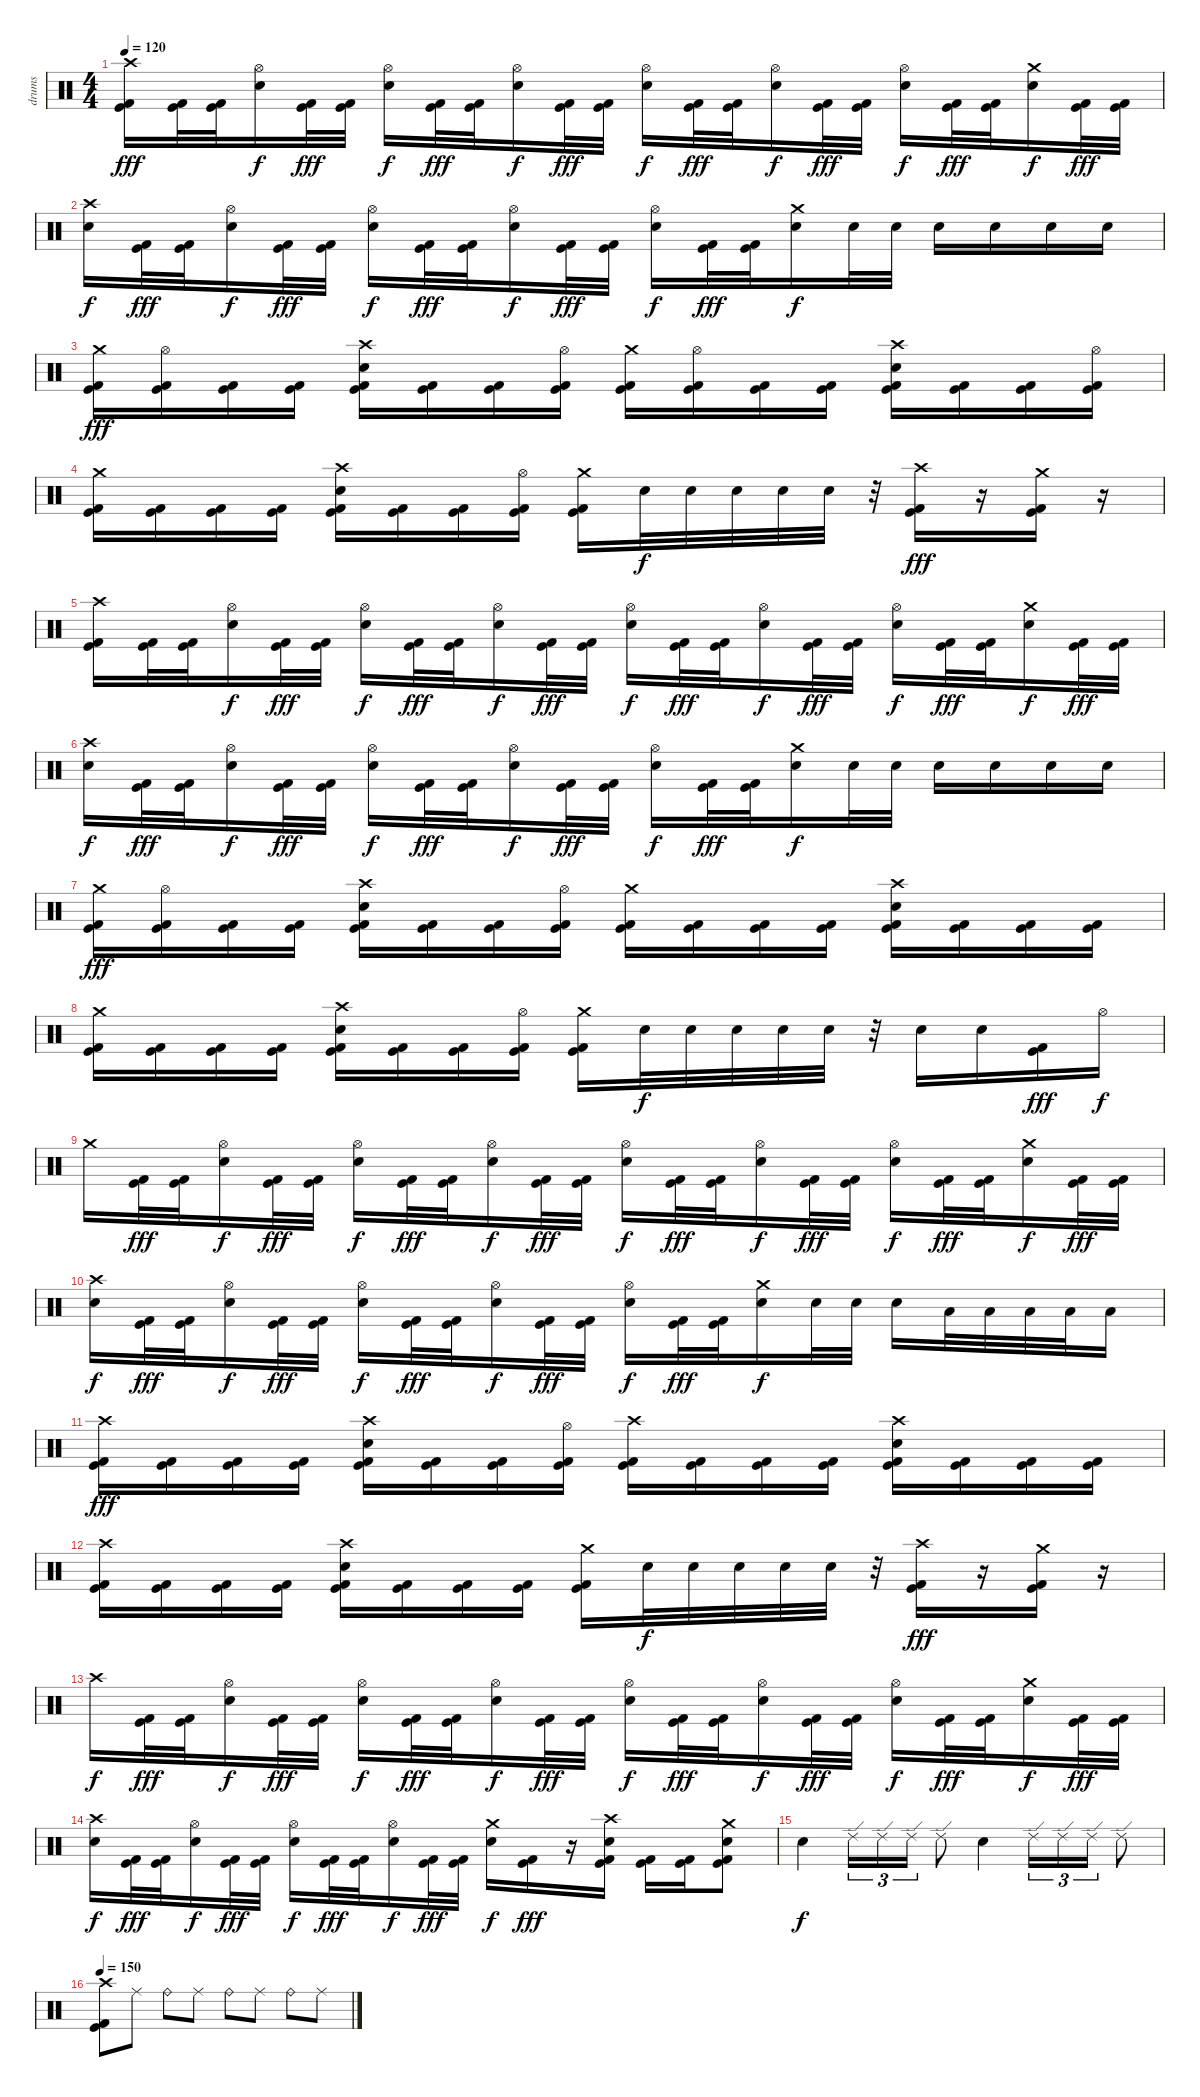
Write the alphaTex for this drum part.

\track ("drums" "drums") {instrument percussion}
\staff {score}
\articulation defaults
\ts (4 4)
\tempo 120
\clef neutral
\ks c
("Crash high (hit)" "Kick (hit)" "Kick (hit) 2").16{dy fff} ("Kick (hit)" "Kick (hit) 2").32 ("Kick (hit)" "Kick (hit) 2").32 ("Hi-Hat (open)" "Electric Snare (hit)").16{dy f} ("Kick (hit)" "Kick (hit) 2").32{dy fff} ("Kick (hit)" "Kick (hit) 2").32 ("Hi-Hat (open)" "Electric Snare (hit)").16{dy f} ("Kick (hit)" "Kick (hit) 2").32{dy fff} ("Kick (hit)" "Kick (hit) 2").32 ("Hi-Hat (open)" "Electric Snare (hit)").16{dy f} ("Kick (hit)" "Kick (hit) 2").32{dy fff} ("Kick (hit)" "Kick (hit) 2").32 ("Hi-Hat (open)" "Electric Snare (hit)").16{dy f} ("Kick (hit)" "Kick (hit) 2").32{dy fff} ("Kick (hit)" "Kick (hit) 2").32 ("Hi-Hat (open)" "Electric Snare (hit)").16{dy f} ("Kick (hit)" "Kick (hit) 2").32{dy fff} ("Kick (hit)" "Kick (hit) 2").32 ("Hi-Hat (open)" "Electric Snare (hit)").16{dy f} ("Kick (hit)" "Kick (hit) 2").32{dy fff} ("Kick (hit)" "Kick (hit) 2").32 ("Crash medium (hit)" "Electric Snare (hit)").16{dy f} ("Kick (hit)" "Kick (hit) 2").32{dy fff} ("Kick (hit)" "Kick (hit) 2").32 |
("Crash high (hit)" "Electric Snare (hit)").16{dy f} ("Kick (hit)" "Kick (hit) 2").32{dy fff} ("Kick (hit)" "Kick (hit) 2").32 ("Hi-Hat (open)" "Electric Snare (hit)").16{dy f} ("Kick (hit)" "Kick (hit) 2").32{dy fff} ("Kick (hit)" "Kick (hit) 2").32 ("Hi-Hat (open)" "Electric Snare (hit)").16{dy f} ("Kick (hit)" "Kick (hit) 2").32{dy fff} ("Kick (hit)" "Kick (hit) 2").32 ("Hi-Hat (open)" "Electric Snare (hit)").16{dy f} ("Kick (hit)" "Kick (hit) 2").32{dy fff} ("Kick (hit)" "Kick (hit) 2").32 ("Hi-Hat (open)" "Electric Snare (hit)").16{dy f} ("Kick (hit)" "Kick (hit) 2").32{dy fff} ("Kick (hit)" "Kick (hit) 2").32 ("Crash medium (hit)" "Electric Snare (hit)").16{dy f} "Electric Snare (hit)".32 "Electric Snare (hit)".32 "Electric Snare (hit)".16 "Electric Snare (hit)".16 "Electric Snare (hit)".16 "Electric Snare (hit)".16 |
("Crash medium (hit)" "Kick (hit)" "Kick (hit) 2").16{dy fff} ("Hi-Hat (open)" "Kick (hit)" "Kick (hit) 2").16 ("Kick (hit)" "Kick (hit) 2").16 ("Kick (hit)" "Kick (hit) 2").16 ("Crash high (hit)" "Electric Snare (hit)" "Kick (hit)" "Kick (hit) 2").16 ("Kick (hit)" "Kick (hit) 2").16 ("Kick (hit)" "Kick (hit) 2").16 ("Hi-Hat (open)" "Kick (hit)" "Kick (hit) 2").16 ("Crash medium (hit)" "Kick (hit)" "Kick (hit) 2").16 ("Hi-Hat (open)" "Kick (hit)" "Kick (hit) 2").16 ("Kick (hit)" "Kick (hit) 2").16 ("Kick (hit)" "Kick (hit) 2").16 ("Crash high (hit)" "Electric Snare (hit)" "Kick (hit)" "Kick (hit) 2").16 ("Kick (hit)" "Kick (hit) 2").16 ("Kick (hit)" "Kick (hit) 2").16 ("Hi-Hat (open)" "Kick (hit)" "Kick (hit) 2").16 |
("Crash medium (hit)" "Kick (hit)" "Kick (hit) 2").16 ("Kick (hit)" "Kick (hit) 2").16 ("Kick (hit)" "Kick (hit) 2").16 ("Kick (hit)" "Kick (hit) 2").16 ("Crash high (hit)" "Electric Snare (hit)" "Kick (hit)" "Kick (hit) 2").16 ("Kick (hit)" "Kick (hit) 2").16 ("Kick (hit)" "Kick (hit) 2").16 ("Hi-Hat (open)" "Kick (hit)" "Kick (hit) 2").16 ("Crash medium (hit)" "Kick (hit)" "Kick (hit) 2").16 "Electric Snare (hit)".32{dy f} "Electric Snare (hit)".32 "Electric Snare (hit)".32 "Electric Snare (hit)".32 "Electric Snare (hit)".32 r.32 ("Crash high (hit)" "Kick (hit)" "Kick (hit) 2").16{dy fff} r.16 ("Crash medium (hit)" "Kick (hit)" "Kick (hit) 2").16 r.16 |
("Crash high (hit)" "Kick (hit)" "Kick (hit) 2").16 ("Kick (hit)" "Kick (hit) 2").32 ("Kick (hit)" "Kick (hit) 2").32 ("Hi-Hat (open)" "Electric Snare (hit)").16{dy f} ("Kick (hit)" "Kick (hit) 2").32{dy fff} ("Kick (hit)" "Kick (hit) 2").32 ("Hi-Hat (open)" "Electric Snare (hit)").16{dy f} ("Kick (hit)" "Kick (hit) 2").32{dy fff} ("Kick (hit)" "Kick (hit) 2").32 ("Hi-Hat (open)" "Electric Snare (hit)").16{dy f} ("Kick (hit)" "Kick (hit) 2").32{dy fff} ("Kick (hit)" "Kick (hit) 2").32 ("Hi-Hat (open)" "Electric Snare (hit)").16{dy f} ("Kick (hit)" "Kick (hit) 2").32{dy fff} ("Kick (hit)" "Kick (hit) 2").32 ("Hi-Hat (open)" "Electric Snare (hit)").16{dy f} ("Kick (hit)" "Kick (hit) 2").32{dy fff} ("Kick (hit)" "Kick (hit) 2").32 ("Hi-Hat (open)" "Electric Snare (hit)").16{dy f} ("Kick (hit)" "Kick (hit) 2").32{dy fff} ("Kick (hit)" "Kick (hit) 2").32 ("Crash medium (hit)" "Electric Snare (hit)").16{dy f} ("Kick (hit)" "Kick (hit) 2").32{dy fff} ("Kick (hit)" "Kick (hit) 2").32 |
("Crash high (hit)" "Electric Snare (hit)").16{dy f} ("Kick (hit)" "Kick (hit) 2").32{dy fff} ("Kick (hit)" "Kick (hit) 2").32 ("Hi-Hat (open)" "Electric Snare (hit)").16{dy f} ("Kick (hit)" "Kick (hit) 2").32{dy fff} ("Kick (hit)" "Kick (hit) 2").32 ("Hi-Hat (open)" "Electric Snare (hit)").16{dy f} ("Kick (hit)" "Kick (hit) 2").32{dy fff} ("Kick (hit)" "Kick (hit) 2").32 ("Hi-Hat (open)" "Electric Snare (hit)").16{dy f} ("Kick (hit)" "Kick (hit) 2").32{dy fff} ("Kick (hit)" "Kick (hit) 2").32 ("Hi-Hat (open)" "Electric Snare (hit)").16{dy f} ("Kick (hit)" "Kick (hit) 2").32{dy fff} ("Kick (hit)" "Kick (hit) 2").32 ("Crash medium (hit)" "Electric Snare (hit)").16{dy f} "Electric Snare (hit)".32 "Electric Snare (hit)".32 "Electric Snare (hit)".16 "Electric Snare (hit)".16 "Electric Snare (hit)".16 "Electric Snare (hit)".16 |
("Crash medium (hit)" "Kick (hit)" "Kick (hit) 2").16{dy fff} ("Hi-Hat (open)" "Kick (hit)" "Kick (hit) 2").16 ("Kick (hit)" "Kick (hit) 2").16 ("Kick (hit)" "Kick (hit) 2").16 ("Crash high (hit)" "Electric Snare (hit)" "Kick (hit)" "Kick (hit) 2").16 ("Kick (hit)" "Kick (hit) 2").16 ("Kick (hit)" "Kick (hit) 2").16 ("Hi-Hat (open)" "Kick (hit)" "Kick (hit) 2").16 ("Crash medium (hit)" "Kick (hit)" "Kick (hit) 2").16 ("Kick (hit)" "Kick (hit) 2").16 ("Kick (hit)" "Kick (hit) 2").16 ("Kick (hit)" "Kick (hit) 2").16 ("Crash high (hit)" "Electric Snare (hit)" "Kick (hit)" "Kick (hit) 2").16 ("Kick (hit)" "Kick (hit) 2").16 ("Kick (hit)" "Kick (hit) 2").16 ("Kick (hit)" "Kick (hit) 2").16 |
("Crash medium (hit)" "Kick (hit)" "Kick (hit) 2").16 ("Kick (hit)" "Kick (hit) 2").16 ("Kick (hit)" "Kick (hit) 2").16 ("Kick (hit)" "Kick (hit) 2").16 ("Crash high (hit)" "Electric Snare (hit)" "Kick (hit)" "Kick (hit) 2").16 ("Kick (hit)" "Kick (hit) 2").16 ("Kick (hit)" "Kick (hit) 2").16 ("Hi-Hat (open)" "Kick (hit)" "Kick (hit) 2").16 ("Crash medium (hit)" "Kick (hit)" "Kick (hit) 2").16 "Electric Snare (hit)".32{dy f} "Electric Snare (hit)".32 "Electric Snare (hit)".32 "Electric Snare (hit)".32 "Electric Snare (hit)".32 r.32 "Electric Snare (hit)".16 "Electric Snare (hit)".16 ("Kick (hit)" "Kick (hit) 2").16{dy fff} "Hi-Hat (open)".16{dy f} |
"Crash medium (hit)".16 ("Kick (hit)" "Kick (hit) 2").32{dy fff} ("Kick (hit)" "Kick (hit) 2").32 ("Hi-Hat (open)" "Electric Snare (hit)").16{dy f} ("Kick (hit)" "Kick (hit) 2").32{dy fff} ("Kick (hit)" "Kick (hit) 2").32 ("Hi-Hat (open)" "Electric Snare (hit)").16{dy f} ("Kick (hit)" "Kick (hit) 2").32{dy fff} ("Kick (hit)" "Kick (hit) 2").32 ("Hi-Hat (open)" "Electric Snare (hit)").16{dy f} ("Kick (hit)" "Kick (hit) 2").32{dy fff} ("Kick (hit)" "Kick (hit) 2").32 ("Hi-Hat (open)" "Electric Snare (hit)").16{dy f} ("Kick (hit)" "Kick (hit) 2").32{dy fff} ("Kick (hit)" "Kick (hit) 2").32 ("Hi-Hat (open)" "Electric Snare (hit)").16{dy f} ("Kick (hit)" "Kick (hit) 2").32{dy fff} ("Kick (hit)" "Kick (hit) 2").32 ("Hi-Hat (open)" "Electric Snare (hit)").16{dy f} ("Kick (hit)" "Kick (hit) 2").32{dy fff} ("Kick (hit)" "Kick (hit) 2").32 ("Crash medium (hit)" "Electric Snare (hit)").16{dy f} ("Kick (hit)" "Kick (hit) 2").32{dy fff} ("Kick (hit)" "Kick (hit) 2").32 |
("Crash high (hit)" "Electric Snare (hit)").16{dy f} ("Kick (hit)" "Kick (hit) 2").32{dy fff} ("Kick (hit)" "Kick (hit) 2").32 ("Hi-Hat (open)" "Electric Snare (hit)").16{dy f} ("Kick (hit)" "Kick (hit) 2").32{dy fff} ("Kick (hit)" "Kick (hit) 2").32 ("Hi-Hat (open)" "Electric Snare (hit)").16{dy f} ("Kick (hit)" "Kick (hit) 2").32{dy fff} ("Kick (hit)" "Kick (hit) 2").32 ("Hi-Hat (open)" "Electric Snare (hit)").16{dy f} ("Kick (hit)" "Kick (hit) 2").32{dy fff} ("Kick (hit)" "Kick (hit) 2").32 ("Hi-Hat (open)" "Electric Snare (hit)").16{dy f} ("Kick (hit)" "Kick (hit) 2").32{dy fff} ("Kick (hit)" "Kick (hit) 2").32 ("Crash medium (hit)" "Electric Snare (hit)").16{dy f} "Electric Snare (hit)".32 "Electric Snare (hit)".32 "Electric Snare (hit)".16 "Low Tom (hit)".32 "Low Tom (hit)".32 "Low Tom (hit)".32 "Low Tom (hit)".32 "Low Tom (hit)".16 |
("Crash high (hit)" "Kick (hit)" "Kick (hit) 2").16{dy fff} ("Kick (hit)" "Kick (hit) 2").16 ("Kick (hit)" "Kick (hit) 2").16 ("Kick (hit)" "Kick (hit) 2").16 ("Crash high (hit)" "Electric Snare (hit)" "Kick (hit)" "Kick (hit) 2").16 ("Kick (hit)" "Kick (hit) 2").16 ("Kick (hit)" "Kick (hit) 2").16 ("Hi-Hat (open)" "Kick (hit)" "Kick (hit) 2").16 ("Crash high (hit)" "Kick (hit)" "Kick (hit) 2").16 ("Kick (hit)" "Kick (hit) 2").16 ("Kick (hit)" "Kick (hit) 2").16 ("Kick (hit)" "Kick (hit) 2").16 ("Crash high (hit)" "Electric Snare (hit)" "Kick (hit)" "Kick (hit) 2").16 ("Kick (hit)" "Kick (hit) 2").16 ("Kick (hit)" "Kick (hit) 2").16 ("Kick (hit)" "Kick (hit) 2").16 |
("Crash high (hit)" "Kick (hit)" "Kick (hit) 2").16 ("Kick (hit)" "Kick (hit) 2").16 ("Kick (hit)" "Kick (hit) 2").16 ("Kick (hit)" "Kick (hit) 2").16 ("Crash high (hit)" "Electric Snare (hit)" "Kick (hit)" "Kick (hit) 2").16 ("Kick (hit)" "Kick (hit) 2").16 ("Kick (hit)" "Kick (hit) 2").16 ("Kick (hit)" "Kick (hit) 2").16 ("Crash medium (hit)" "Kick (hit)" "Kick (hit) 2").16 "Electric Snare (hit)".32{dy f} "Electric Snare (hit)".32 "Electric Snare (hit)".32 "Electric Snare (hit)".32 "Electric Snare (hit)".32 r.32 ("Crash high (hit)" "Kick (hit)" "Kick (hit) 2").16{dy fff} r.16 ("Crash medium (hit)" "Kick (hit)" "Kick (hit) 2").16 r.16 |
"Crash high (hit)".16{dy f} ("Kick (hit)" "Kick (hit) 2").32{dy fff} ("Kick (hit)" "Kick (hit) 2").32 ("Hi-Hat (open)" "Electric Snare (hit)").16{dy f} ("Kick (hit)" "Kick (hit) 2").32{dy fff} ("Kick (hit)" "Kick (hit) 2").32 ("Hi-Hat (open)" "Electric Snare (hit)").16{dy f} ("Kick (hit)" "Kick (hit) 2").32{dy fff} ("Kick (hit)" "Kick (hit) 2").32 ("Hi-Hat (open)" "Electric Snare (hit)").16{dy f} ("Kick (hit)" "Kick (hit) 2").32{dy fff} ("Kick (hit)" "Kick (hit) 2").32 ("Hi-Hat (open)" "Electric Snare (hit)").16{dy f} ("Kick (hit)" "Kick (hit) 2").32{dy fff} ("Kick (hit)" "Kick (hit) 2").32 ("Hi-Hat (open)" "Electric Snare (hit)").16{dy f} ("Kick (hit)" "Kick (hit) 2").32{dy fff} ("Kick (hit)" "Kick (hit) 2").32 ("Hi-Hat (open)" "Electric Snare (hit)").16{dy f} ("Kick (hit)" "Kick (hit) 2").32{dy fff} ("Kick (hit)" "Kick (hit) 2").32 ("Crash medium (hit)" "Electric Snare (hit)").16{dy f} ("Kick (hit)" "Kick (hit) 2").32{dy fff} ("Kick (hit)" "Kick (hit) 2").32 |
("Crash high (hit)" "Electric Snare (hit)").16{dy f} ("Kick (hit)" "Kick (hit) 2").32{dy fff} ("Kick (hit)" "Kick (hit) 2").32 ("Hi-Hat (open)" "Electric Snare (hit)").16{dy f} ("Kick (hit)" "Kick (hit) 2").32{dy fff} ("Kick (hit)" "Kick (hit) 2").32 ("Hi-Hat (open)" "Electric Snare (hit)").16{dy f} ("Kick (hit)" "Kick (hit) 2").32{dy fff} ("Kick (hit)" "Kick (hit) 2").32 ("Hi-Hat (open)" "Electric Snare (hit)").16{dy f} ("Kick (hit)" "Kick (hit) 2").32{dy fff} ("Kick (hit)" "Kick (hit) 2").32 ("Crash medium (hit)" "Electric Snare (hit)").16{dy f} ("Kick (hit)" "Kick (hit) 2").16{dy fff} r.16 ("Crash high (hit)" "Electric Snare (hit)" "Kick (hit)" "Kick (hit) 2").16 ("Kick (hit)" "Kick (hit) 2").16 ("Kick (hit)" "Kick (hit) 2").16 ("Crash medium (hit)" "Electric Snare (hit)" "Kick (hit)" "Kick (hit) 2").8 |
"Electric Snare (hit)".4{dy f} "Ride (edge) 2".16{tu (3 2)} "Ride (edge) 2".16{tu (3 2)} "Ride (edge) 2".16{tu (3 2)} "Ride (edge) 2".8 "Electric Snare (hit)".4 "Ride (edge) 2".16{tu (3 2)} "Ride (edge) 2".16{tu (3 2)} "Ride (edge) 2".16{tu (3 2)} "Ride (edge) 2".8 |
\tempo 150
("Crash high (hit)" "Kick (hit)" "Kick (hit) 2").8 "Ride (middle)".8 "Ride (bell)".8 "Ride (middle)".8 "Ride (bell)".8 "Ride (middle)".8 "Ride (bell)".8 "Ride (middle)".8
